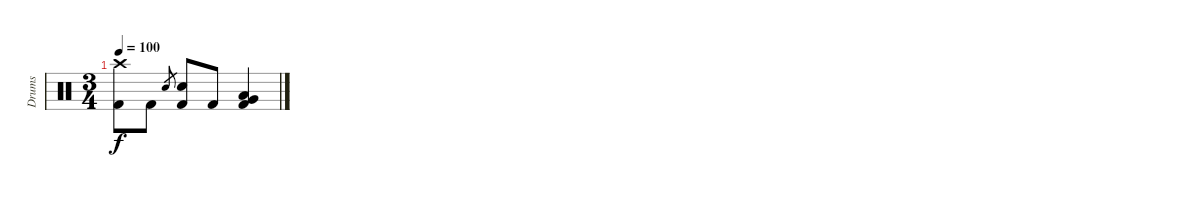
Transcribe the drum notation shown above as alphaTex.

\track ("Drums" "Drums") {instrument percussion}
\staff {score}
\articulation defaults
\ts (3 4)
\tempo 100
\clef neutral
\ks c
("Crash high (hit)" "Kick (hit) 2").8{dy f} "Kick (hit) 2".8 "Electric Snare (hit)".8{gr} ("Electric Snare (hit)" "Kick (hit) 2").8 "Kick (hit) 2".8 ("Very Low Tom (hit)" "Low Floor Tom (hit)" "Kick (hit) 2").4
